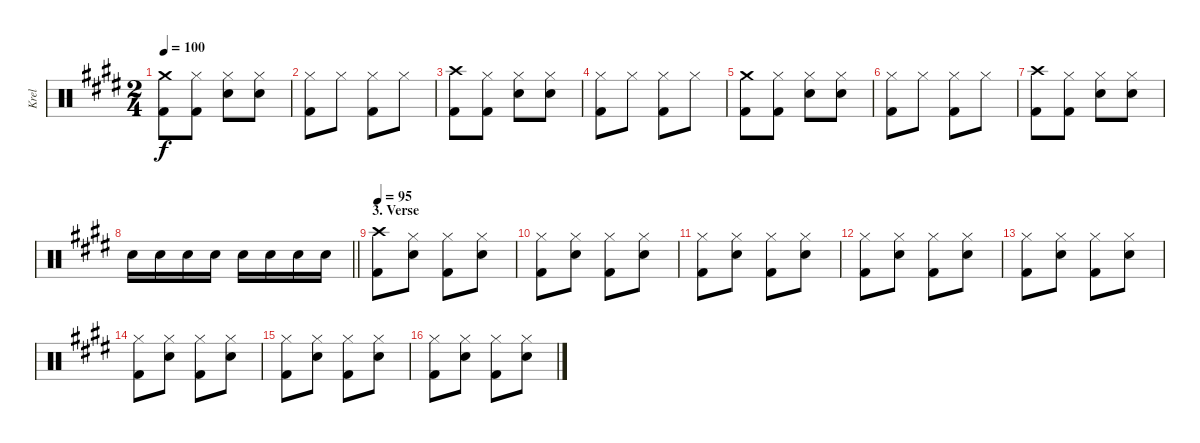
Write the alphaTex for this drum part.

\track ("Krel" "Krel") {instrument percussion}
\staff {score}
\articulation defaults
\ts (2 4)
\tempo 100
\clef neutral
\ks e
("Crash medium (hit)" "Kick (hit) 2").8{dy f} ("Hi-Hat (closed)" "Kick (hit) 2").8 ("Hi-Hat (closed)" "Snare (hit) 2").8 ("Hi-Hat (closed)" "Snare (hit) 2").8 |
("Hi-Hat (closed)" "Kick (hit) 2").8 "Hi-Hat (closed)".8 ("Hi-Hat (closed)" "Kick (hit) 2").8 "Hi-Hat (closed)".8 |
("Crash high (hit)" "Kick (hit) 2").8 ("Hi-Hat (closed)" "Kick (hit) 2").8 ("Hi-Hat (closed)" "Snare (hit) 2").8 ("Hi-Hat (closed)" "Snare (hit) 2").8 |
("Hi-Hat (closed)" "Kick (hit) 2").8 "Hi-Hat (closed)".8 ("Hi-Hat (closed)" "Kick (hit) 2").8 "Hi-Hat (closed)".8 |
("Crash medium (hit)" "Kick (hit) 2").8 ("Hi-Hat (closed)" "Kick (hit) 2").8 ("Hi-Hat (closed)" "Snare (hit) 2").8 ("Hi-Hat (closed)" "Snare (hit) 2").8 |
("Hi-Hat (closed)" "Kick (hit) 2").8 "Hi-Hat (closed)".8 ("Hi-Hat (closed)" "Kick (hit) 2").8 "Hi-Hat (closed)".8 |
("Crash high (hit)" "Kick (hit) 2").8 ("Hi-Hat (closed)" "Kick (hit) 2").8 ("Hi-Hat (closed)" "Snare (hit) 2").8 ("Hi-Hat (closed)" "Snare (hit) 2").8 |
\barLineRight lightlight "Snare (hit) 2".16 "Snare (hit) 2".16 "Snare (hit) 2".16 "Snare (hit) 2".16 "Snare (hit) 2".16 "Snare (hit) 2".16 "Snare (hit) 2".16 "Snare (hit) 2".16
|
\section ("" "3. Verse")
\tempo 95
("Crash high (hit)" "Kick (hit) 2").8 ("Hi-Hat (closed)" "Snare (hit) 2").8 ("Hi-Hat (closed)" "Kick (hit) 2").8 ("Hi-Hat (closed)" "Snare (hit) 2").8 |
("Hi-Hat (closed)" "Kick (hit) 2").8 ("Hi-Hat (closed)" "Snare (hit) 2").8 ("Hi-Hat (closed)" "Kick (hit) 2").8 ("Hi-Hat (closed)" "Snare (hit) 2").8 |
("Hi-Hat (closed)" "Kick (hit) 2").8 ("Hi-Hat (closed)" "Snare (hit) 2").8 ("Hi-Hat (closed)" "Kick (hit) 2").8 ("Hi-Hat (closed)" "Snare (hit) 2").8 |
("Hi-Hat (closed)" "Kick (hit) 2").8 ("Hi-Hat (closed)" "Snare (hit) 2").8 ("Hi-Hat (closed)" "Kick (hit) 2").8 ("Hi-Hat (closed)" "Snare (hit) 2").8 |
("Hi-Hat (closed)" "Kick (hit) 2").8 ("Hi-Hat (closed)" "Snare (hit) 2").8 ("Hi-Hat (closed)" "Kick (hit) 2").8 ("Hi-Hat (closed)" "Snare (hit) 2").8 |
("Hi-Hat (closed)" "Kick (hit) 2").8 ("Hi-Hat (closed)" "Snare (hit) 2").8 ("Hi-Hat (closed)" "Kick (hit) 2").8 ("Hi-Hat (closed)" "Snare (hit) 2").8 |
("Hi-Hat (closed)" "Kick (hit) 2").8 ("Hi-Hat (closed)" "Snare (hit) 2").8 ("Hi-Hat (closed)" "Kick (hit) 2").8 ("Hi-Hat (closed)" "Snare (hit) 2").8 |
("Hi-Hat (closed)" "Kick (hit) 2").8 ("Hi-Hat (closed)" "Snare (hit) 2").8 ("Hi-Hat (closed)" "Kick (hit) 2").8 ("Hi-Hat (closed)" "Snare (hit) 2").8
